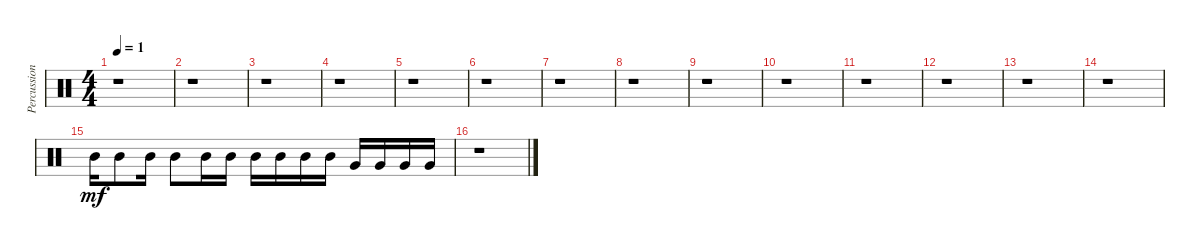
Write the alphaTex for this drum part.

\track ("Percussion 1" "Percussion") {instrument percussion}
\staff {score}
\articulation defaults
\ts (4 4)
\tempo 1
\clef neutral
\ks c
r.1{dy ppp} |
r.1 |
r.1 |
r.1 |
r.1 |
r.1 |
r.1 |
r.1 |
r.1 |
r.1 |
r.1 |
r.1 |
r.1 |
r.1 |
"Mid Tom (hit)".16{dy mf} "Mid Tom (hit)".8 "Mid Tom (hit)".16 "Mid Tom (hit)".8 "Mid Tom (hit)".16 "Mid Tom (hit)".16 "Mid Tom (hit)".16 "Mid Tom (hit)".16 "Mid Tom (hit)".16 "Mid Tom (hit)".16 "Very Low Tom (hit)".16 "Very Low Tom (hit)".16 "Very Low Tom (hit)".16 "Very Low Tom (hit)".16 |
r.1
